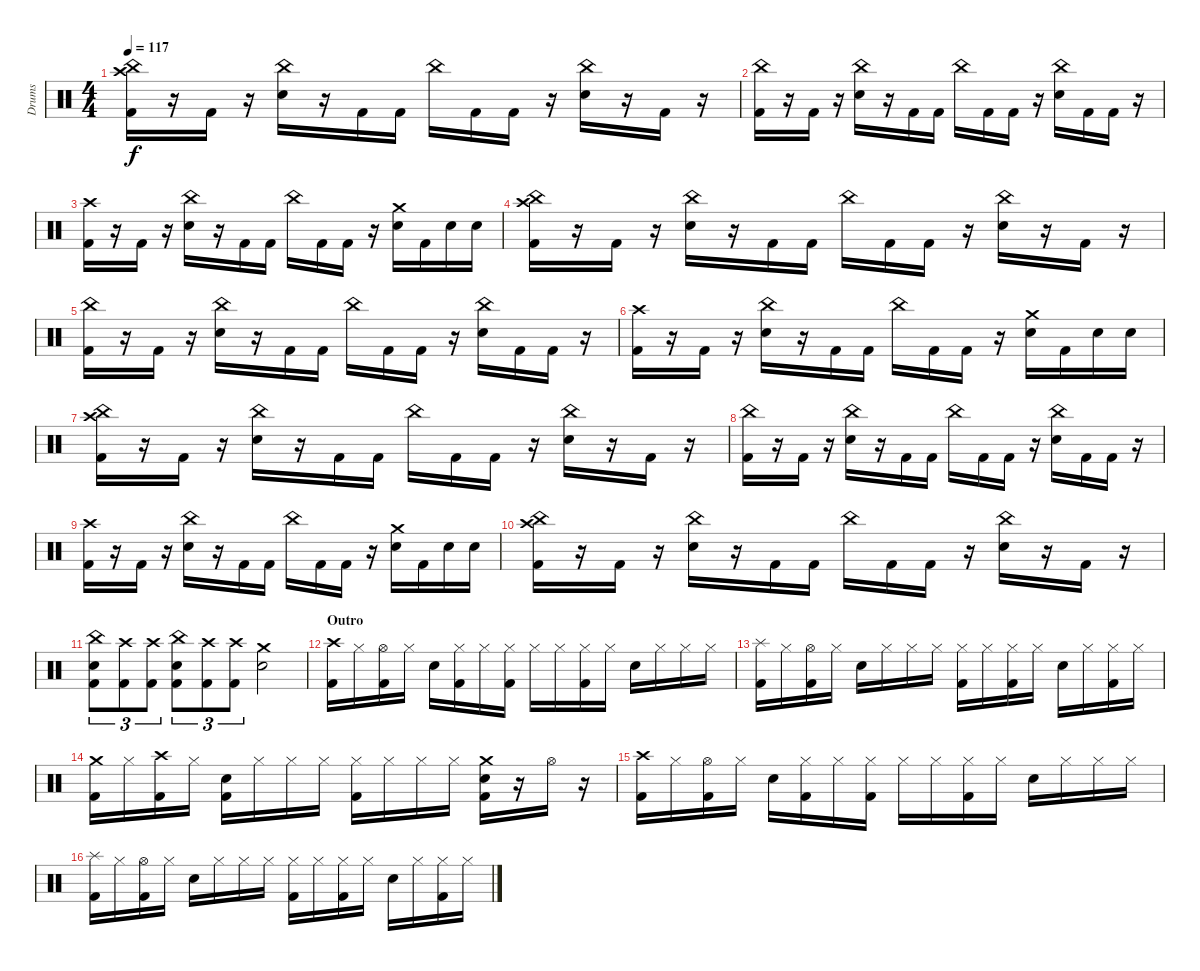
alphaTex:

\track ("Drums" "Drums") {instrument percussion}
\staff {score}
\articulation defaults
\ts (4 4)
\tempo 117
\clef neutral
\ks c
("China (hit)" "Crash high (hit)" "Kick (hit) 2").16{dy f} r.16 "Kick (hit) 2".16 r.16 ("China (hit)" "Electric Snare (hit)").16 r.16 "Kick (hit) 2".16 "Kick (hit) 2".16 "China (hit)".16 "Kick (hit) 2".16 "Kick (hit) 2".16 r.16 ("China (hit)" "Electric Snare (hit)").16 r.16 "Kick (hit) 2".16 r.16 |
("China (hit)" "Kick (hit) 2").16 r.16 "Kick (hit) 2".16 r.16 ("China (hit)" "Electric Snare (hit)").16 r.16 "Kick (hit) 2".16 "Kick (hit) 2".16 "China (hit)".16 "Kick (hit) 2".16 "Kick (hit) 2".16 r.16 ("China (hit)" "Electric Snare (hit)").16 "Kick (hit) 2".16 "Kick (hit) 2".16 r.16 |
("Crash high (hit)" "Kick (hit) 2").16 r.16 "Kick (hit) 2".16 r.16 ("China (hit)" "Electric Snare (hit)").16 r.16 "Kick (hit) 2".16 "Kick (hit) 2".16 "China (hit)".16 "Kick (hit) 2".16 "Kick (hit) 2".16 r.16 ("Crash medium (hit)" "Electric Snare (hit)").16 "Kick (hit) 2".16 "Electric Snare (hit)".16 "Electric Snare (hit)".16 |
("China (hit)" "Crash high (hit)" "Kick (hit) 2").16 r.16 "Kick (hit) 2".16 r.16 ("China (hit)" "Electric Snare (hit)").16 r.16 "Kick (hit) 2".16 "Kick (hit) 2".16 "China (hit)".16 "Kick (hit) 2".16 "Kick (hit) 2".16 r.16 ("China (hit)" "Electric Snare (hit)").16 r.16 "Kick (hit) 2".16 r.16 |
("China (hit)" "Kick (hit) 2").16 r.16 "Kick (hit) 2".16 r.16 ("China (hit)" "Electric Snare (hit)").16 r.16 "Kick (hit) 2".16 "Kick (hit) 2".16 "China (hit)".16 "Kick (hit) 2".16 "Kick (hit) 2".16 r.16 ("China (hit)" "Electric Snare (hit)").16 "Kick (hit) 2".16 "Kick (hit) 2".16 r.16 |
("Crash high (hit)" "Kick (hit) 2").16 r.16 "Kick (hit) 2".16 r.16 ("China (hit)" "Electric Snare (hit)").16 r.16 "Kick (hit) 2".16 "Kick (hit) 2".16 "China (hit)".16 "Kick (hit) 2".16 "Kick (hit) 2".16 r.16 ("Crash medium (hit)" "Electric Snare (hit)").16 "Kick (hit) 2".16 "Electric Snare (hit)".16 "Electric Snare (hit)".16 |
("China (hit)" "Crash high (hit)" "Kick (hit) 2").16 r.16 "Kick (hit) 2".16 r.16 ("China (hit)" "Electric Snare (hit)").16 r.16 "Kick (hit) 2".16 "Kick (hit) 2".16 "China (hit)".16 "Kick (hit) 2".16 "Kick (hit) 2".16 r.16 ("China (hit)" "Electric Snare (hit)").16 r.16 "Kick (hit) 2".16 r.16 |
("China (hit)" "Kick (hit) 2").16 r.16 "Kick (hit) 2".16 r.16 ("China (hit)" "Electric Snare (hit)").16 r.16 "Kick (hit) 2".16 "Kick (hit) 2".16 "China (hit)".16 "Kick (hit) 2".16 "Kick (hit) 2".16 r.16 ("China (hit)" "Electric Snare (hit)").16 "Kick (hit) 2".16 "Kick (hit) 2".16 r.16 |
("Crash high (hit)" "Kick (hit) 2").16 r.16 "Kick (hit) 2".16 r.16 ("China (hit)" "Electric Snare (hit)").16 r.16 "Kick (hit) 2".16 "Kick (hit) 2".16 "China (hit)".16 "Kick (hit) 2".16 "Kick (hit) 2".16 r.16 ("Crash medium (hit)" "Electric Snare (hit)").16 "Kick (hit) 2".16 "Electric Snare (hit)".16 "Electric Snare (hit)".16 |
("China (hit)" "Crash high (hit)" "Kick (hit) 2").16 r.16 "Kick (hit) 2".16 r.16 ("China (hit)" "Electric Snare (hit)").16 r.16 "Kick (hit) 2".16 "Kick (hit) 2".16 "China (hit)".16 "Kick (hit) 2".16 "Kick (hit) 2".16 r.16 ("China (hit)" "Electric Snare (hit)").16 r.16 "Kick (hit) 2".16 r.16 |
("China (hit)" "Electric Snare (hit)" "Kick (hit) 2").8{tu (3 2)} ("Crash high (hit)" "Kick (hit) 2").8{tu (3 2)} ("Crash high (hit)" "Kick (hit) 2").8{tu (3 2)} ("China (hit)" "Electric Snare (hit)" "Kick (hit) 2").8{tu (3 2)} ("Crash high (hit)" "Kick (hit) 2").8{tu (3 2)} ("Crash high (hit)" "Kick (hit) 2").8{tu (3 2)} ("Crash medium (hit)" "Electric Snare (hit)").2 |
\section ("" "Outro")
("Crash high (hit)" "Kick (hit) 2").16 "Hi-Hat (closed)".16 ("Hi-Hat (open)" "Kick (hit) 2").16 "Hi-Hat (closed)".16 "Electric Snare (hit)".16 ("Hi-Hat (closed)" "Kick (hit) 2").16 "Hi-Hat (closed)".16 ("Hi-Hat (closed)" "Kick (hit) 2").16 "Hi-Hat (closed)".16 "Hi-Hat (closed)".16 ("Hi-Hat (closed)" "Kick (hit) 2").16 "Hi-Hat (closed)".16 "Electric Snare (hit)".16 "Hi-Hat (closed)".16 "Hi-Hat (closed)".16 "Hi-Hat (closed)".16 |
("Splash (hit)" "Kick (hit) 2").16 "Hi-Hat (closed)".16 ("Hi-Hat (open)" "Kick (hit) 2").16 "Hi-Hat (closed)".16 "Electric Snare (hit)".16 "Hi-Hat (closed)".16 "Hi-Hat (closed)".16 "Hi-Hat (closed)".16 ("Hi-Hat (closed)" "Kick (hit) 2").16 "Hi-Hat (closed)".16 ("Hi-Hat (closed)" "Kick (hit) 2").16 "Hi-Hat (closed)".16 "Electric Snare (hit)".16 "Hi-Hat (closed)".16 ("Hi-Hat (closed)" "Kick (hit) 2").16 "Hi-Hat (closed)".16 |
("Crash medium (hit)" "Kick (hit) 2").16 "Hi-Hat (closed)".16 ("Crash high (hit)" "Kick (hit) 2").16 "Hi-Hat (closed)".16 ("Electric Snare (hit)" "Kick (hit) 2").16 "Hi-Hat (closed)".16 "Hi-Hat (closed)".16 "Hi-Hat (closed)".16 ("Hi-Hat (closed)" "Kick (hit) 2").16 "Hi-Hat (closed)".16 "Hi-Hat (closed)".16 "Hi-Hat (closed)".16 ("Crash medium (hit)" "Electric Snare (hit)" "Kick (hit) 2").16 r.16 "Hi-Hat (open)".16 r.16 |
("Crash high (hit)" "Kick (hit) 2").16 "Hi-Hat (closed)".16 ("Hi-Hat (open)" "Kick (hit) 2").16 "Hi-Hat (closed)".16 "Electric Snare (hit)".16 ("Hi-Hat (closed)" "Kick (hit) 2").16 "Hi-Hat (closed)".16 ("Hi-Hat (closed)" "Kick (hit) 2").16 "Hi-Hat (closed)".16 "Hi-Hat (closed)".16 ("Hi-Hat (closed)" "Kick (hit) 2").16 "Hi-Hat (closed)".16 "Electric Snare (hit)".16 "Hi-Hat (closed)".16 "Hi-Hat (closed)".16 "Hi-Hat (closed)".16 |
("Splash (hit)" "Kick (hit) 2").16 "Hi-Hat (closed)".16 ("Hi-Hat (open)" "Kick (hit) 2").16 "Hi-Hat (closed)".16 "Electric Snare (hit)".16 "Hi-Hat (closed)".16 "Hi-Hat (closed)".16 "Hi-Hat (closed)".16 ("Hi-Hat (closed)" "Kick (hit) 2").16 "Hi-Hat (closed)".16 ("Hi-Hat (closed)" "Kick (hit) 2").16 "Hi-Hat (closed)".16 "Electric Snare (hit)".16 "Hi-Hat (closed)".16 ("Hi-Hat (closed)" "Kick (hit) 2").16 "Hi-Hat (closed)".16
